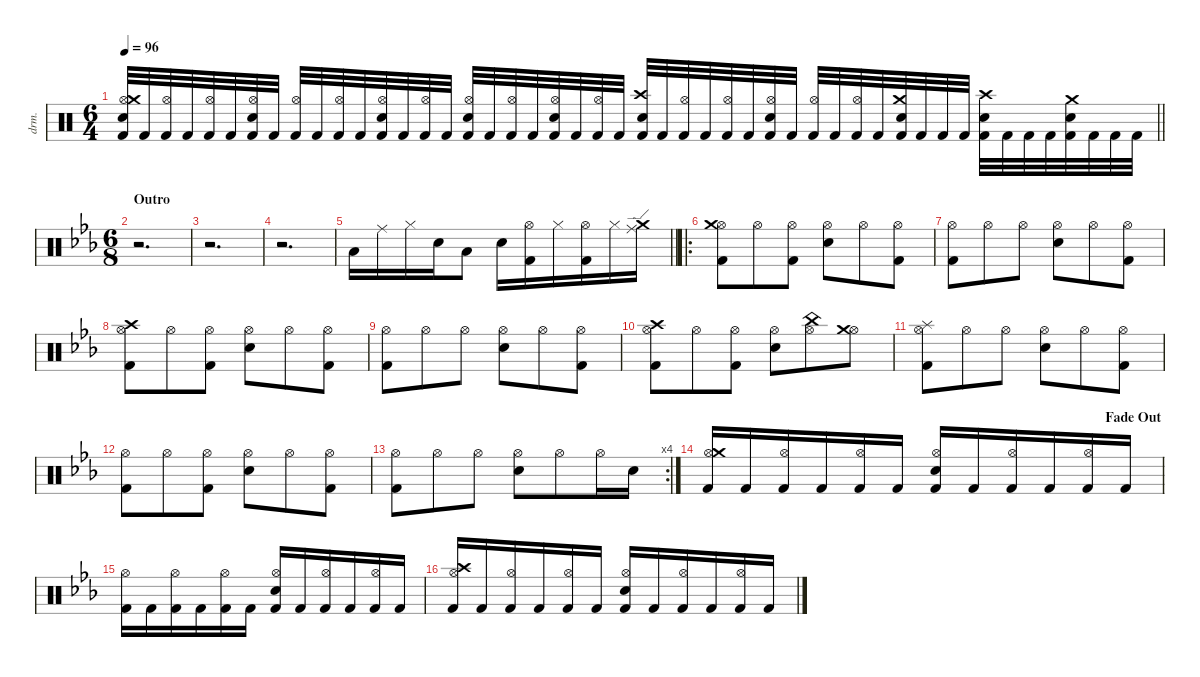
\defaultSystemsLayout 4
\hideDynamics
\bracketExtendMode nobrackets
\otherSystemsTrackNameOrientation horizontal
\track ("Drums" "drm.") {defaultSystemsLayout 4 instrument percussion}
\staff {score}
\articulation defaults
\ts (6 4)
\tempo 96
\clef neutral
\barLineRight lightlight
\ks aminor
("Hi-Hat (open)" "Crash medium (hit)" "Snare (hit) 2" "Kick (hit) 2").32{dy f beam Up} "Kick (hit) 2".32{dy ff beam Up} ("Hi-Hat (open)" "Kick (hit) 2").32{dy f beam Up} "Kick (hit) 2".32{dy ff beam Up} ("Hi-Hat (open)" "Kick (hit) 2").32{dy f beam Up} "Kick (hit) 2".32{dy ff beam Up} ("Hi-Hat (open)" "Snare (hit) 2" "Kick (hit) 2").32{dy f beam Up} "Kick (hit) 2".32{dy ff beam Up} ("Hi-Hat (open)" "Kick (hit) 2").32{dy f beam Up} "Kick (hit) 2".32{dy ff beam Up} ("Hi-Hat (open)" "Kick (hit) 2").32{dy f beam Up} "Kick (hit) 2".32{dy ff beam Up} ("Hi-Hat (open)" "Snare (hit) 2" "Kick (hit) 2").32{dy f beam Up} "Kick (hit) 2".32{dy ff beam Up} ("Hi-Hat (open)" "Kick (hit) 2").32{dy f beam Up} "Kick (hit) 2".32{dy ff beam Up} ("Hi-Hat (open)" "Snare (hit) 2" "Kick (hit) 2").32{dy f beam Up} "Kick (hit) 2".32{dy ff beam Up} ("Hi-Hat (open)" "Kick (hit) 2").32{dy f beam Up} "Kick (hit) 2".32{dy ff beam Up} ("Hi-Hat (open)" "Snare (hit) 2" "Kick (hit) 2").32{dy f beam Up} "Kick (hit) 2".32{dy ff beam Up} ("Hi-Hat (open)" "Kick (hit) 2").32{dy f beam Up} "Kick (hit) 2".32{dy ff beam Up} ("Crash high (hit)" "Snare (hit) 2" "Kick (hit) 2").32{dy fff beam Up} "Kick (hit) 2".32{dy ff beam Up} ("Hi-Hat (open)" "Kick (hit) 2").32{dy f beam Up} "Kick (hit) 2".32{dy ff beam Up} ("Hi-Hat (open)" "Kick (hit) 2").32{dy f beam Up} "Kick (hit) 2".32{dy ff beam Up} ("Hi-Hat (open)" "Snare (hit) 2" "Kick (hit) 2").32{dy f beam Up} "Kick (hit) 2".32{dy ff beam Up} ("Hi-Hat (open)" "Kick (hit) 2").32{dy f beam Up} "Kick (hit) 2".32{dy ff beam Up} ("Hi-Hat (open)" "Kick (hit) 2").32{dy f beam Up} "Kick (hit) 2".32{dy ff beam Up} ("Crash medium (hit)" "Snare (hit) 2" "Kick (hit) 2").32{dy fff beam Down} "Kick (hit) 2".32{dy ff beam Down} "Kick (hit) 2".32{beam Down} "Kick (hit) 2".32{beam Down} ("Crash high (hit)" "Snare (hit) 2" "Kick (hit) 2").32{dy fff beam Down} "Kick (hit) 2".32{dy ff beam Down} "Kick (hit) 2".32{beam Down} "Kick (hit) 2".32{beam Down} ("Crash medium (hit)" "Snare (hit) 2" "Kick (hit) 2").32{dy fff beam Down} "Kick (hit) 2".32{dy ff beam Down} "Kick (hit) 2".32{beam Down} "Kick (hit) 2".32{beam Down} |
\ts (6 8)
\beaming (8 3 3)
\section ("" "Outro")
\tempo (94.5 hide)
\ks cminor
r.2{d beam Down} |
r.2{d beam Down} |
r.2{d beam Down} |
\barLineRight lightlight "Low Tom (hit)"{acc forcenatural}.16{beam Down} "Ride (middle)"{acc forcenatural}.16{beam Down} "Hi-Hat (closed)"{acc forcenatural}.16{dy fff beam Down} "Snare (hit) 2"{acc forcenatural}.16{beam Down} "Low Tom (hit)"{acc forcenatural}.8{dy f beam Down} "Snare (hit) 2"{acc forcenatural}.16{dy ff beam Down}
("Hi-Hat (open)"{acc forcenatural} "Kick (hit) 2"{acc forcenatural}).16{beam Down} "Hi-Hat (closed)"{acc forcenatural}.16{beam Down} ("Hi-Hat (open)"{acc forcenatural} "Kick (hit) 2"{acc forcenatural}).16{beam Down} "Hi-Hat (closed)"{acc forcenatural}.16{beam Down} ("Ride (edge)"{acc forcenatural} "Crash medium (hit)"{acc forcenatural}).16{beam Down} |
\ro
("Hi-Hat (open)"{acc forcenatural} "Crash medium (hit)"{acc forcenatural} "Kick (hit) 2"{acc forcenatural}).8{beam Down} "Hi-Hat (open)"{acc forcenatural}.8{beam Down} ("Hi-Hat (open)"{acc forcenatural} "Kick (hit) 2"{acc forcenatural}).8{beam Down} ("Hi-Hat (open)"{acc forcenatural} "Snare (hit) 2"{acc forcenatural}).8{beam Down} "Hi-Hat (open)"{acc forcenatural}.8{beam Down} ("Hi-Hat (open)"{acc forcenatural} "Kick (hit) 2"{acc forcenatural}).8{beam Down} |
("Hi-Hat (open)"{acc forcenatural} "Kick (hit) 2"{acc forcenatural}).8{beam Down} "Hi-Hat (open)"{acc forcenatural}.8{beam Down} "Hi-Hat (open)"{acc forcenatural}.8{beam Down} ("Hi-Hat (open)"{acc forcenatural} "Snare (hit) 2"{acc forcenatural}).8{beam Down} "Hi-Hat (open)"{acc forcenatural}.8{beam Down} ("Hi-Hat (open)"{acc forcenatural} "Kick (hit) 2"{acc forcenatural}).8{beam Down} |
("Hi-Hat (open)"{acc forcenatural} "Crash high (hit)"{acc forcenatural} "Kick (hit) 2"{acc forcenatural}).8{beam Down} "Hi-Hat (open)"{acc forcenatural}.8{beam Down} ("Hi-Hat (open)"{acc forcenatural} "Kick (hit) 2"{acc forcenatural}).8{beam Down} ("Hi-Hat (open)"{acc forcenatural} "Snare (hit) 2"{acc forcenatural}).8{beam Down} "Hi-Hat (open)"{acc forcenatural}.8{beam Down} ("Hi-Hat (open)"{acc forcenatural} "Kick (hit) 2"{acc forcenatural}).8{beam Down} |
("Hi-Hat (open)"{acc forcenatural} "Kick (hit) 2"{acc forcenatural}).8{beam Down} "Hi-Hat (open)"{acc forcenatural}.8{beam Down} "Hi-Hat (open)"{acc forcenatural}.8{beam Down} ("Hi-Hat (open)"{acc forcenatural} "Snare (hit) 2"{acc forcenatural}).8{beam Down} "Hi-Hat (open)"{acc forcenatural}.8{beam Down} ("Hi-Hat (open)"{acc forcenatural} "Kick (hit) 2"{acc forcenatural}).8{beam Down} |
("Hi-Hat (open)"{acc forcenatural} "Crash high (hit)"{acc forcenatural} "Kick (hit) 2"{acc forcenatural}).8{beam Down} "Hi-Hat (open)"{acc forcenatural}.8{beam Down} ("Hi-Hat (open)"{acc forcenatural} "Kick (hit) 2"{acc forcenatural}).8{beam Down} ("Hi-Hat (open)"{acc forcenatural} "Snare (hit) 2"{acc forcenatural}).8{beam Down} ("Hi-Hat (open)"{acc forcenatural} "China (hit)"{acc forcenatural}).8{dy fff beam Down} ("Hi-Hat (open)"{acc forcenatural} "Crash medium (hit)"{acc forcenatural}).8{dy ff beam Down} |
("Hi-Hat (open)"{acc forcenatural} "Splash (hit)"{acc forcenatural} "Kick (hit) 2"{acc forcenatural}).8{beam Down} "Hi-Hat (open)"{acc forcenatural}.8{beam Down} "Hi-Hat (open)"{acc forcenatural}.8{beam Down} ("Hi-Hat (open)"{acc forcenatural} "Snare (hit) 2"{acc forcenatural}).8{beam Down} "Hi-Hat (open)"{acc forcenatural}.8{beam Down} ("Hi-Hat (open)"{acc forcenatural} "Kick (hit) 2"{acc forcenatural}).8{beam Down} |
("Hi-Hat (open)"{acc forcenatural} "Kick (hit) 2"{acc forcenatural}).8{beam Down} "Hi-Hat (open)"{acc forcenatural}.8{beam Down} ("Hi-Hat (open)"{acc forcenatural} "Kick (hit) 2"{acc forcenatural}).8{dy f beam Down} ("Hi-Hat (open)"{acc forcenatural} "Snare (hit) 2"{acc forcenatural}).8{dy ff beam Down} "Hi-Hat (open)"{acc forcenatural}.8{beam Down} ("Hi-Hat (open)"{acc forcenatural} "Kick (hit) 2"{acc forcenatural}).8{beam Down} |
\rc 4
("Hi-Hat (open)"{acc forcenatural} "Kick (hit) 2"{acc forcenatural}).8{beam Down} "Hi-Hat (open)"{acc forcenatural}.8{beam Down} "Hi-Hat (open)"{acc forcenatural}.8{beam Down} ("Hi-Hat (open)"{acc forcenatural} "Snare (hit) 2"{acc forcenatural}).8{beam Down} "Hi-Hat (open)"{acc forcenatural}.8{beam Down} "Hi-Hat (open)"{acc forcenatural}.16{beam Down} "Snare (hit) 2"{acc forcenatural}.16{dy fff beam Down} |
\section ("" "                                                                                                                    Fade Out")
("Hi-Hat (open)"{acc forcenatural} "Crash medium (hit)"{acc forcenatural} "Kick (hit) 2"{acc forcenatural}).16{dy ff beam Up} "Kick (hit) 2"{acc forcenatural}.16{dy f beam Up} ("Hi-Hat (open)"{acc forcenatural} "Kick (hit) 2"{acc forcenatural}).16{dy ff beam Up} "Kick (hit) 2"{acc forcenatural}.16{dy f beam Up} ("Hi-Hat (open)"{acc forcenatural} "Kick (hit) 2"{acc forcenatural}).16{dy ff beam Up} "Kick (hit) 2"{acc forcenatural}.16{dy f beam Up} ("Hi-Hat (open)"{acc forcenatural} "Snare (hit) 2"{acc forcenatural} "Kick (hit) 2"{acc forcenatural}).16{dy ff beam Up} "Kick (hit) 2"{acc forcenatural}.16{dy f beam Up} ("Hi-Hat (open)"{acc forcenatural} "Kick (hit) 2"{acc forcenatural}).16{dy ff beam Up} "Kick (hit) 2"{acc forcenatural}.16{dy f beam Up} ("Hi-Hat (open)"{acc forcenatural} "Kick (hit) 2"{acc forcenatural}).16{dy ff beam Up} "Kick (hit) 2"{acc forcenatural}.16{dy f beam Up} |
("Hi-Hat (open)"{acc forcenatural} "Kick (hit) 2"{acc forcenatural}).16{dy ff beam Down} "Kick (hit) 2"{acc forcenatural}.16{dy f beam Down} ("Hi-Hat (open)"{acc forcenatural} "Kick (hit) 2"{acc forcenatural}).16{dy ff beam Down} "Kick (hit) 2"{acc forcenatural}.16{dy f beam Down} ("Hi-Hat (open)"{acc forcenatural} "Kick (hit) 2"{acc forcenatural}).16{dy ff beam Down} "Kick (hit) 2"{acc forcenatural}.16{dy f beam Down} ("Hi-Hat (open)"{acc forcenatural} "Snare (hit) 2"{acc forcenatural} "Kick (hit) 2"{acc forcenatural}).16{dy ff beam Up} "Kick (hit) 2"{acc forcenatural}.16{dy f beam Up} ("Hi-Hat (open)"{acc forcenatural} "Kick (hit) 2"{acc forcenatural}).16{dy ff beam Up} "Kick (hit) 2"{acc forcenatural}.16{dy f beam Up} ("Hi-Hat (open)"{acc forcenatural} "Kick (hit) 2"{acc forcenatural}).16{dy ff beam Up} "Kick (hit) 2"{acc forcenatural}.16{dy f beam Up} |
("Hi-Hat (open)"{acc forcenatural} "Crash high (hit)"{acc forcenatural} "Kick (hit) 2"{acc forcenatural}).16{dy ff beam Up} "Kick (hit) 2"{acc forcenatural}.16{dy f beam Up} ("Hi-Hat (open)"{acc forcenatural} "Kick (hit) 2"{acc forcenatural}).16{dy ff beam Up} "Kick (hit) 2"{acc forcenatural}.16{dy f beam Up} ("Hi-Hat (open)"{acc forcenatural} "Kick (hit) 2"{acc forcenatural}).16{dy ff beam Up} "Kick (hit) 2"{acc forcenatural}.16{dy f beam Up} ("Hi-Hat (open)"{acc forcenatural} "Snare (hit) 2"{acc forcenatural} "Kick (hit) 2"{acc forcenatural}).16{dy ff beam Up} "Kick (hit) 2"{acc forcenatural}.16{dy f beam Up} ("Hi-Hat (open)"{acc forcenatural} "Kick (hit) 2"{acc forcenatural}).16{dy ff beam Up} "Kick (hit) 2"{acc forcenatural}.16{dy f beam Up} ("Hi-Hat (open)"{acc forcenatural} "Kick (hit) 2"{acc forcenatural}).16{dy ff beam Up} "Kick (hit) 2"{acc forcenatural}.16{dy f beam Up}
